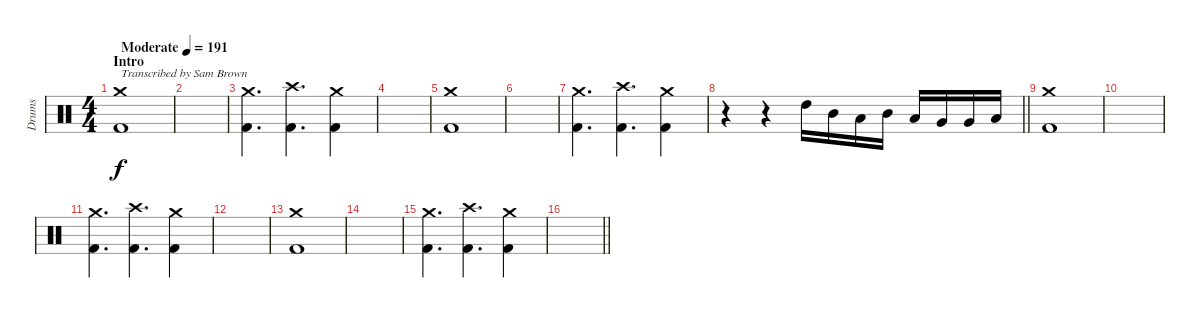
\track ("Drums" "Drums") {instrument percussion}
\staff {score}
\articulation defaults
\ts (4 4)
\section ("" "Intro")
\tempo (191 "Moderate")
\clef neutral
\ks c
("Kick (hit) 2" "Crash medium (hit)").1{txt "Transcribed by Sam Brown" dy f} |
|
("Kick (hit) 2" "Crash medium (hit)").4{d} ("Kick (hit) 2" "Crash high (hit)").4{d} ("Kick (hit) 2" "Crash medium (hit)").4 |
|
("Kick (hit) 2" "Crash medium (hit)").1 |
|
("Kick (hit) 2" "Crash medium (hit)").4{d} ("Kick (hit) 2" "Crash high (hit)").4{d} ("Kick (hit) 2" "Crash medium (hit)").4 |
\barLineRight lightlight
r.4 r.4 "High Tom (hit)".16 "Mid Tom (hit)".16 "Low Tom (hit)".16 "Mid Tom (hit)".16 "Low Tom (hit)".16 "Very Low Tom (hit)".16 "Very Low Tom (hit)".16 "Low Floor Tom (hit)".16 |
\section ("" "")
("Kick (hit) 2" "Crash medium (hit)").1 |
|
("Kick (hit) 2" "Crash medium (hit)").4{d} ("Kick (hit) 2" "Crash high (hit)").4{d} ("Kick (hit) 2" "Crash medium (hit)").4 |
|
("Kick (hit) 2" "Crash medium (hit)").1 |
|
("Kick (hit) 2" "Crash medium (hit)").4{d} ("Kick (hit) 2" "Crash high (hit)").4{d} ("Kick (hit) 2" "Crash medium (hit)").4 |
\barLineRight lightlight
